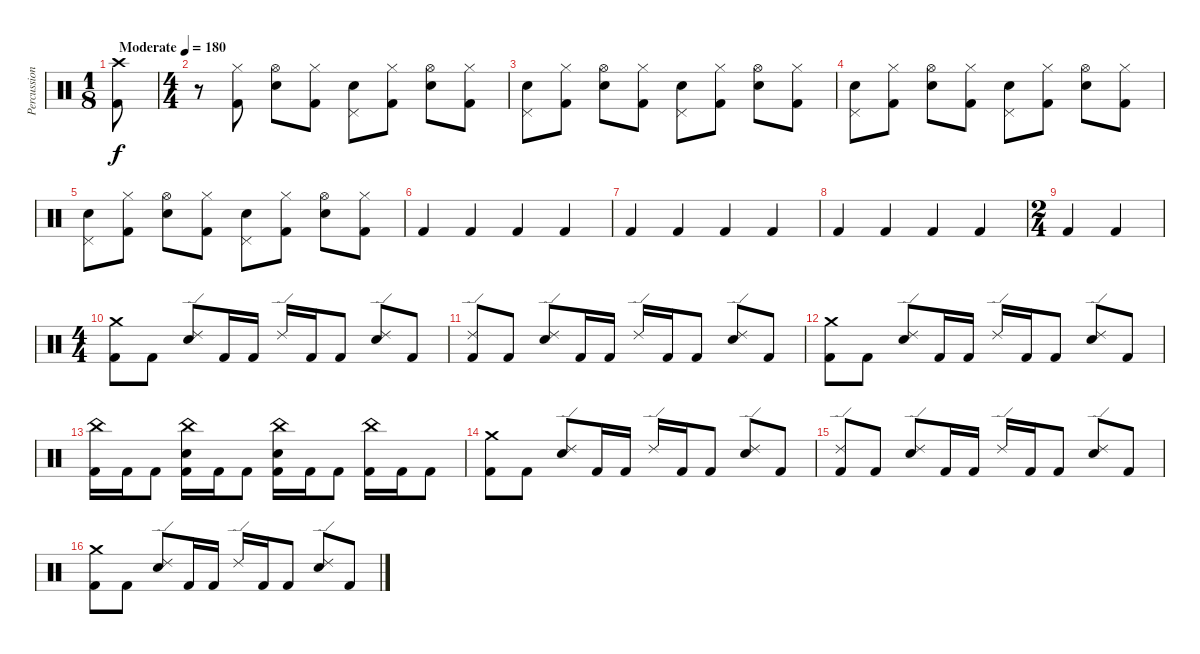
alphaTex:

\track ("Percussion" "Percussion") {instrument percussion}
\staff {score}
\articulation defaults
\ts (1 8)
\tempo (180 "Moderate")
\clef neutral
\ks c
("Kick (hit) 2" "Crash high (hit)").8{dy f} |
\ts (4 4)
r.8 ("Kick (hit) 2" "Hi-Hat (closed)").8 ("Snare (hit) 2" "Hi-Hat (open)").8 ("Kick (hit) 2" "Hi-Hat (closed)").8 ("Snare (hit) 2" "Pedal Hi-Hat (hit)").8 ("Kick (hit) 2" "Hi-Hat (closed)").8 ("Snare (hit) 2" "Hi-Hat (open)").8 ("Kick (hit) 2" "Hi-Hat (closed)").8 |
("Snare (hit) 2" "Pedal Hi-Hat (hit)").8 ("Kick (hit) 2" "Hi-Hat (closed)").8 ("Snare (hit) 2" "Hi-Hat (open)").8 ("Kick (hit) 2" "Hi-Hat (closed)").8 ("Snare (hit) 2" "Pedal Hi-Hat (hit)").8 ("Kick (hit) 2" "Hi-Hat (closed)").8 ("Snare (hit) 2" "Hi-Hat (open)").8 ("Kick (hit) 2" "Hi-Hat (closed)").8 |
("Snare (hit) 2" "Pedal Hi-Hat (hit)").8 ("Kick (hit) 2" "Hi-Hat (closed)").8 ("Snare (hit) 2" "Hi-Hat (open)").8 ("Kick (hit) 2" "Hi-Hat (closed)").8 ("Snare (hit) 2" "Pedal Hi-Hat (hit)").8 ("Kick (hit) 2" "Hi-Hat (closed)").8 ("Snare (hit) 2" "Hi-Hat (open)").8 ("Kick (hit) 2" "Hi-Hat (closed)").8 |
("Snare (hit) 2" "Pedal Hi-Hat (hit)").8 ("Kick (hit) 2" "Hi-Hat (closed)").8 ("Snare (hit) 2" "Hi-Hat (open)").8 ("Kick (hit) 2" "Hi-Hat (closed)").8 ("Snare (hit) 2" "Pedal Hi-Hat (hit)").8 ("Kick (hit) 2" "Hi-Hat (closed)").8 ("Snare (hit) 2" "Hi-Hat (open)").8 ("Kick (hit) 2" "Hi-Hat (closed)").8 |
"Kick (hit) 2".4 "Kick (hit) 2".4 "Kick (hit) 2".4 "Kick (hit) 2".4 |
"Kick (hit) 2".4 "Kick (hit) 2".4 "Kick (hit) 2".4 "Kick (hit) 2".4 |
"Kick (hit) 2".4 "Kick (hit) 2".4 "Kick (hit) 2".4 "Kick (hit) 2".4 |
\ts (2 4)
"Kick (hit) 2".4 "Kick (hit) 2".4 |
\ts (4 4)
("Kick (hit) 2" "Crash medium (hit)").8 "Kick (hit) 2".8 ("Snare (hit) 2" "Ride (edge) 2").8 "Kick (hit) 2".16 "Kick (hit) 2".16 "Ride (edge) 2".16 "Kick (hit) 2".16 "Kick (hit) 2".8 ("Snare (hit) 2" "Ride (edge) 2").8 "Kick (hit) 2".8 |
("Kick (hit) 2" "Ride (edge) 2").8 "Kick (hit) 2".8 ("Snare (hit) 2" "Ride (edge) 2").8 "Kick (hit) 2".16 "Kick (hit) 2".16 "Ride (edge) 2".16 "Kick (hit) 2".16 "Kick (hit) 2".8 ("Snare (hit) 2" "Ride (edge) 2").8 "Kick (hit) 2".8 |
("Kick (hit) 2" "Crash medium (hit)").8 "Kick (hit) 2".8 ("Snare (hit) 2" "Ride (edge) 2").8 "Kick (hit) 2".16 "Kick (hit) 2".16 "Ride (edge) 2".16 "Kick (hit) 2".16 "Kick (hit) 2".8 ("Snare (hit) 2" "Ride (edge) 2").8 "Kick (hit) 2".8 |
("Kick (hit) 2" "China (hit)").16 "Kick (hit) 2".16 "Kick (hit) 2".8 ("Kick (hit) 2" "Snare (hit) 2" "China (hit)").16 "Kick (hit) 2".16 "Kick (hit) 2".8 ("Kick (hit) 2" "Snare (hit) 2" "China (hit)").16 "Kick (hit) 2".16 "Kick (hit) 2".8 ("Kick (hit) 2" "China (hit)").16 "Kick (hit) 2".16 "Kick (hit) 2".8 |
("Kick (hit) 2" "Crash medium (hit)").8 "Kick (hit) 2".8 ("Snare (hit) 2" "Ride (edge) 2").8 "Kick (hit) 2".16 "Kick (hit) 2".16 "Ride (edge) 2".16 "Kick (hit) 2".16 "Kick (hit) 2".8 ("Snare (hit) 2" "Ride (edge) 2").8 "Kick (hit) 2".8 |
("Kick (hit) 2" "Ride (edge) 2").8 "Kick (hit) 2".8 ("Snare (hit) 2" "Ride (edge) 2").8 "Kick (hit) 2".16 "Kick (hit) 2".16 "Ride (edge) 2".16 "Kick (hit) 2".16 "Kick (hit) 2".8 ("Snare (hit) 2" "Ride (edge) 2").8 "Kick (hit) 2".8 |
("Kick (hit) 2" "Crash medium (hit)").8 "Kick (hit) 2".8 ("Snare (hit) 2" "Ride (edge) 2").8 "Kick (hit) 2".16 "Kick (hit) 2".16 "Ride (edge) 2".16 "Kick (hit) 2".16 "Kick (hit) 2".8 ("Snare (hit) 2" "Ride (edge) 2").8 "Kick (hit) 2".8
